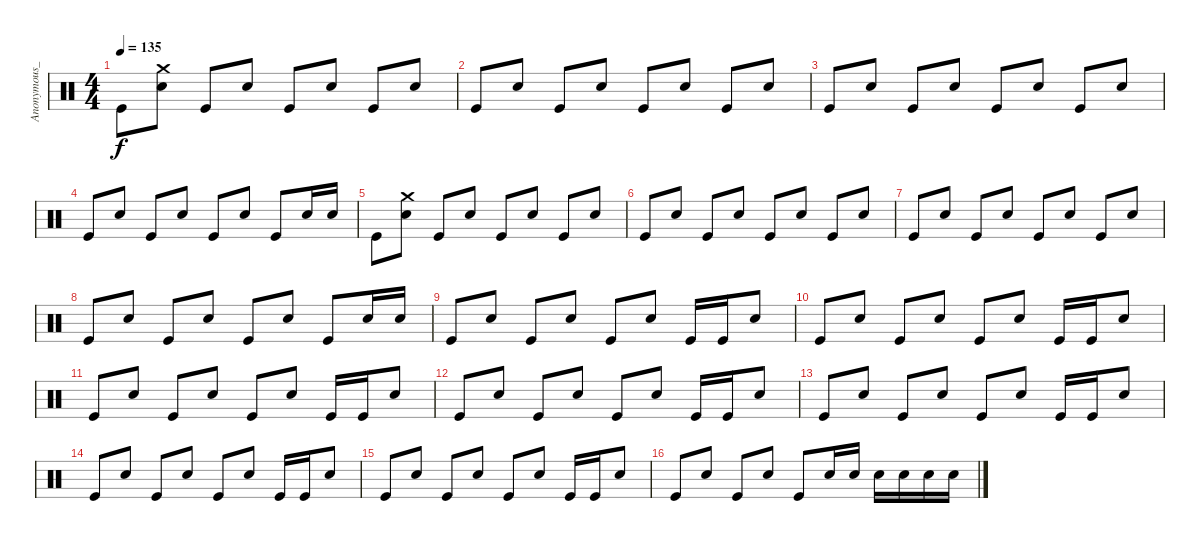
\track ("Anonymous_Drums" "Anonymous_") {instrument percussion}
\staff {score}
\articulation defaults
\ts (4 4)
\tempo 135
\clef neutral
\ks c "Kick (hit)".8{dy f}
("Crash medium (hit)" "Snare (hit) 2").8 "Kick (hit)".8 "Snare (hit) 2".8 "Kick (hit)".8 "Snare (hit) 2".8 "Kick (hit)".8 "Snare (hit) 2".8 |
"Kick (hit)".8 "Snare (hit) 2".8 "Kick (hit)".8 "Snare (hit) 2".8 "Kick (hit)".8 "Snare (hit) 2".8 "Kick (hit)".8 "Snare (hit) 2".8 |
"Kick (hit)".8 "Snare (hit) 2".8 "Kick (hit)".8 "Snare (hit) 2".8 "Kick (hit)".8 "Snare (hit) 2".8 "Kick (hit)".8 "Snare (hit) 2".8 |
"Kick (hit)".8 "Snare (hit) 2".8 "Kick (hit)".8 "Snare (hit) 2".8 "Kick (hit)".8 "Snare (hit) 2".8 "Kick (hit)".8 "Snare (hit) 2".16 "Snare (hit) 2".16 |
"Kick (hit)".8 ("Crash medium (hit)" "Snare (hit) 2").8 "Kick (hit)".8 "Snare (hit) 2".8 "Kick (hit)".8 "Snare (hit) 2".8 "Kick (hit)".8 "Snare (hit) 2".8 |
"Kick (hit)".8 "Snare (hit) 2".8 "Kick (hit)".8 "Snare (hit) 2".8 "Kick (hit)".8 "Snare (hit) 2".8 "Kick (hit)".8 "Snare (hit) 2".8 |
"Kick (hit)".8 "Snare (hit) 2".8 "Kick (hit)".8 "Snare (hit) 2".8 "Kick (hit)".8 "Snare (hit) 2".8 "Kick (hit)".8 "Snare (hit) 2".8 |
"Kick (hit)".8 "Snare (hit) 2".8 "Kick (hit)".8 "Snare (hit) 2".8 "Kick (hit)".8 "Snare (hit) 2".8 "Kick (hit)".8 "Snare (hit) 2".16 "Snare (hit) 2".16 |
"Kick (hit)".8 "Snare (hit) 2".8 "Kick (hit)".8 "Snare (hit) 2".8 "Kick (hit)".8 "Snare (hit) 2".8 "Kick (hit)".16 "Kick (hit)".16 "Snare (hit) 2".8 |
"Kick (hit)".8 "Snare (hit) 2".8 "Kick (hit)".8 "Snare (hit) 2".8 "Kick (hit)".8 "Snare (hit) 2".8 "Kick (hit)".16 "Kick (hit)".16 "Snare (hit) 2".8 |
"Kick (hit)".8 "Snare (hit) 2".8 "Kick (hit)".8 "Snare (hit) 2".8 "Kick (hit)".8 "Snare (hit) 2".8 "Kick (hit)".16 "Kick (hit)".16 "Snare (hit) 2".8 |
"Kick (hit)".8 "Snare (hit) 2".8 "Kick (hit)".8 "Snare (hit) 2".8 "Kick (hit)".8 "Snare (hit) 2".8 "Kick (hit)".16 "Kick (hit)".16 "Snare (hit) 2".8 |
"Kick (hit)".8 "Snare (hit) 2".8 "Kick (hit)".8 "Snare (hit) 2".8 "Kick (hit)".8 "Snare (hit) 2".8 "Kick (hit)".16 "Kick (hit)".16 "Snare (hit) 2".8 |
"Kick (hit)".8 "Snare (hit) 2".8 "Kick (hit)".8 "Snare (hit) 2".8 "Kick (hit)".8 "Snare (hit) 2".8 "Kick (hit)".16 "Kick (hit)".16 "Snare (hit) 2".8 |
"Kick (hit)".8 "Snare (hit) 2".8 "Kick (hit)".8 "Snare (hit) 2".8 "Kick (hit)".8 "Snare (hit) 2".8 "Kick (hit)".16 "Kick (hit)".16 "Snare (hit) 2".8 |
"Kick (hit)".8 "Snare (hit) 2".8 "Kick (hit)".8 "Snare (hit) 2".8 "Kick (hit)".8 "Snare (hit) 2".16 "Snare (hit) 2".16 "Snare (hit) 2".16 "Snare (hit) 2".16 "Snare (hit) 2".16 "Snare (hit) 2".16
